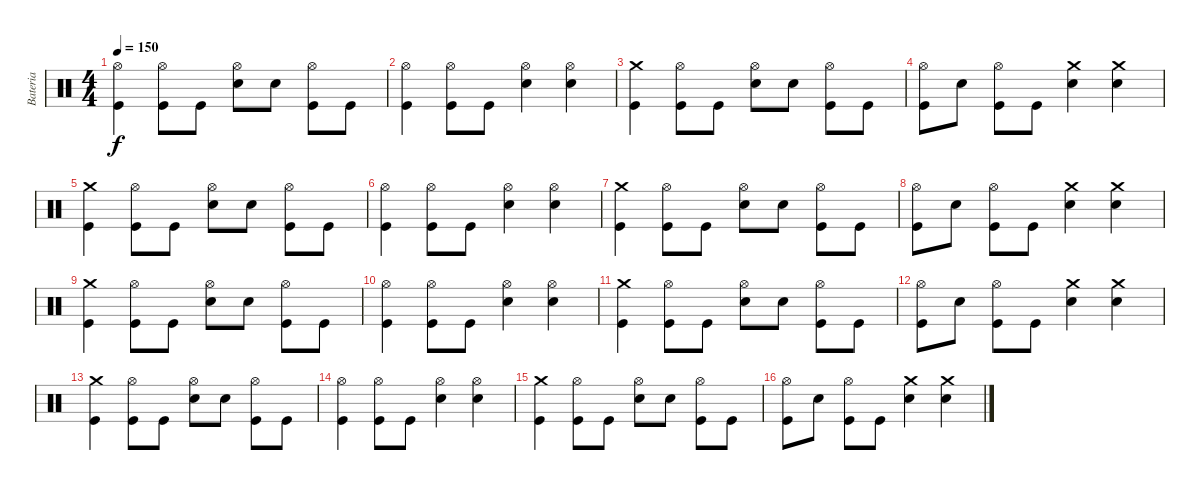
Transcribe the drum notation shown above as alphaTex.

\track ("Bateria" "Bateria") {instrument percussion}
\staff {score}
\articulation defaults
\ts (4 4)
\tempo 150
\clef neutral
\ks c
("Hi-Hat (open)" "Kick (hit)").4{dy f} ("Hi-Hat (open)" "Kick (hit)").8 "Kick (hit)".8 ("Hi-Hat (open)" "Snare (hit) 2").8 "Snare (hit) 2".8 ("Hi-Hat (open)" "Kick (hit)").8 "Kick (hit)".8 |
("Hi-Hat (open)" "Kick (hit)").4 ("Hi-Hat (open)" "Kick (hit)").8 "Kick (hit)".8 ("Hi-Hat (open)" "Snare (hit) 2").4 ("Hi-Hat (open)" "Snare (hit) 2").4 |
("Crash medium (hit)" "Kick (hit)").4 ("Hi-Hat (open)" "Kick (hit)").8 "Kick (hit)".8 ("Hi-Hat (open)" "Snare (hit) 2").8 "Snare (hit) 2".8 ("Hi-Hat (open)" "Kick (hit)").8 "Kick (hit)".8 |
("Hi-Hat (open)" "Kick (hit)").8 "Snare (hit) 2".8 ("Hi-Hat (open)" "Kick (hit)").8 "Kick (hit)".8 ("Crash medium (hit)" "Snare (hit) 2").4 ("Crash medium (hit)" "Snare (hit) 2").4 |
("Crash medium (hit)" "Kick (hit)").4 ("Hi-Hat (open)" "Kick (hit)").8 "Kick (hit)".8 ("Hi-Hat (open)" "Snare (hit) 2").8 "Snare (hit) 2".8 ("Hi-Hat (open)" "Kick (hit)").8 "Kick (hit)".8 |
("Hi-Hat (open)" "Kick (hit)").4 ("Hi-Hat (open)" "Kick (hit)").8 "Kick (hit)".8 ("Hi-Hat (open)" "Snare (hit) 2").4 ("Hi-Hat (open)" "Snare (hit) 2").4 |
("Crash medium (hit)" "Kick (hit)").4 ("Hi-Hat (open)" "Kick (hit)").8 "Kick (hit)".8 ("Hi-Hat (open)" "Snare (hit) 2").8 "Snare (hit) 2".8 ("Hi-Hat (open)" "Kick (hit)").8 "Kick (hit)".8 |
("Hi-Hat (open)" "Kick (hit)").8 "Snare (hit) 2".8 ("Hi-Hat (open)" "Kick (hit)").8 "Kick (hit)".8 ("Crash medium (hit)" "Snare (hit) 2").4 ("Crash medium (hit)" "Snare (hit) 2").4 |
("Crash medium (hit)" "Kick (hit)").4 ("Hi-Hat (open)" "Kick (hit)").8 "Kick (hit)".8 ("Hi-Hat (open)" "Snare (hit) 2").8 "Snare (hit) 2".8 ("Hi-Hat (open)" "Kick (hit)").8 "Kick (hit)".8 |
("Hi-Hat (open)" "Kick (hit)").4 ("Hi-Hat (open)" "Kick (hit)").8 "Kick (hit)".8 ("Hi-Hat (open)" "Snare (hit) 2").4 ("Hi-Hat (open)" "Snare (hit) 2").4 |
("Crash medium (hit)" "Kick (hit)").4 ("Hi-Hat (open)" "Kick (hit)").8 "Kick (hit)".8 ("Hi-Hat (open)" "Snare (hit) 2").8 "Snare (hit) 2".8 ("Hi-Hat (open)" "Kick (hit)").8 "Kick (hit)".8 |
("Hi-Hat (open)" "Kick (hit)").8 "Snare (hit) 2".8 ("Hi-Hat (open)" "Kick (hit)").8 "Kick (hit)".8 ("Crash medium (hit)" "Snare (hit) 2").4 ("Crash medium (hit)" "Snare (hit) 2").4 |
("Crash medium (hit)" "Kick (hit)").4 ("Hi-Hat (open)" "Kick (hit)").8 "Kick (hit)".8 ("Hi-Hat (open)" "Snare (hit) 2").8 "Snare (hit) 2".8 ("Hi-Hat (open)" "Kick (hit)").8 "Kick (hit)".8 |
("Hi-Hat (open)" "Kick (hit)").4 ("Hi-Hat (open)" "Kick (hit)").8 "Kick (hit)".8 ("Hi-Hat (open)" "Snare (hit) 2").4 ("Hi-Hat (open)" "Snare (hit) 2").4 |
("Crash medium (hit)" "Kick (hit)").4 ("Hi-Hat (open)" "Kick (hit)").8 "Kick (hit)".8 ("Hi-Hat (open)" "Snare (hit) 2").8 "Snare (hit) 2".8 ("Hi-Hat (open)" "Kick (hit)").8 "Kick (hit)".8 |
("Hi-Hat (open)" "Kick (hit)").8 "Snare (hit) 2".8 ("Hi-Hat (open)" "Kick (hit)").8 "Kick (hit)".8 ("Crash medium (hit)" "Snare (hit) 2").4 ("Crash medium (hit)" "Snare (hit) 2").4
